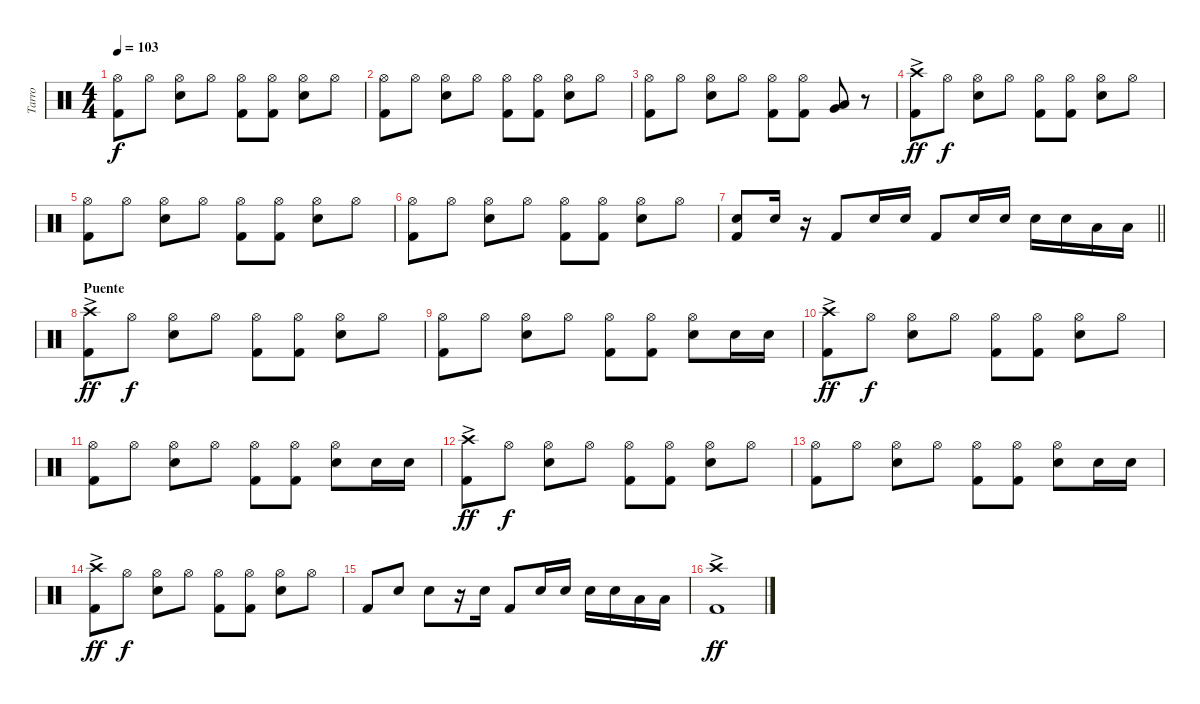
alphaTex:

\track ("Tarro" "Tarro") {instrument percussion}
\staff {score}
\articulation defaults
\ts (4 4)
\tempo 103
\clef neutral
\ks c
("Hi-Hat (open)" "Kick (hit) 2").8{dy f} "Hi-Hat (open)".8 ("Hi-Hat (open)" "Electric Snare (hit)").8 "Hi-Hat (open)".8 ("Hi-Hat (open)" "Kick (hit) 2").8 ("Hi-Hat (open)" "Kick (hit) 2").8 ("Hi-Hat (open)" "Electric Snare (hit)").8 "Hi-Hat (open)".8 |
("Hi-Hat (open)" "Kick (hit) 2").8 "Hi-Hat (open)".8 ("Hi-Hat (open)" "Electric Snare (hit)").8 "Hi-Hat (open)".8 ("Hi-Hat (open)" "Kick (hit) 2").8 ("Hi-Hat (open)" "Kick (hit) 2").8 ("Hi-Hat (open)" "Electric Snare (hit)").8 "Hi-Hat (open)".8 |
("Hi-Hat (open)" "Kick (hit) 2").8 "Hi-Hat (open)".8 ("Hi-Hat (open)" "Electric Snare (hit)").8 "Hi-Hat (open)".8 ("Hi-Hat (open)" "Kick (hit) 2").8 ("Hi-Hat (open)" "Kick (hit) 2").8 ("Very Low Tom (hit)" "Low Floor Tom (hit)").8 r.8 |
("Crash high (hit)"{ac} "Kick (hit) 2").8{dy ff} "Hi-Hat (open)".8{dy f} ("Hi-Hat (open)" "Electric Snare (hit)").8 "Hi-Hat (open)".8 ("Hi-Hat (open)" "Kick (hit) 2").8 ("Hi-Hat (open)" "Kick (hit) 2").8 ("Hi-Hat (open)" "Electric Snare (hit)").8 "Hi-Hat (open)".8 |
("Hi-Hat (open)" "Kick (hit) 2").8 "Hi-Hat (open)".8 ("Hi-Hat (open)" "Electric Snare (hit)").8 "Hi-Hat (open)".8 ("Hi-Hat (open)" "Kick (hit) 2").8 ("Hi-Hat (open)" "Kick (hit) 2").8 ("Hi-Hat (open)" "Electric Snare (hit)").8 "Hi-Hat (open)".8 |
("Hi-Hat (open)" "Kick (hit) 2").8 "Hi-Hat (open)".8 ("Hi-Hat (open)" "Electric Snare (hit)").8 "Hi-Hat (open)".8 ("Hi-Hat (open)" "Kick (hit) 2").8 ("Hi-Hat (open)" "Kick (hit) 2").8 ("Hi-Hat (open)" "Electric Snare (hit)").8 "Hi-Hat (open)".8 |
\barLineRight lightlight
("Electric Snare (hit)" "Kick (hit) 2").8 "Electric Snare (hit)".16 r.16 "Kick (hit) 2".8 "Electric Snare (hit)".16 "Electric Snare (hit)".16 "Kick (hit) 2".8 "Electric Snare (hit)".16 "Electric Snare (hit)".16 "Electric Snare (hit)".16 "Electric Snare (hit)".16 "Low Floor Tom (hit)".16 "Low Floor Tom (hit)".16 |
\section ("" "Puente")
("Crash high (hit)"{ac} "Kick (hit) 2").8{dy ff} "Hi-Hat (open)".8{dy f} ("Hi-Hat (open)" "Electric Snare (hit)").8 "Hi-Hat (open)".8 ("Hi-Hat (open)" "Kick (hit) 2").8 ("Hi-Hat (open)" "Kick (hit) 2").8 ("Hi-Hat (open)" "Electric Snare (hit)").8 "Hi-Hat (open)".8 |
("Hi-Hat (open)" "Kick (hit) 2").8 "Hi-Hat (open)".8 ("Hi-Hat (open)" "Electric Snare (hit)").8 "Hi-Hat (open)".8 ("Hi-Hat (open)" "Kick (hit) 2").8 ("Hi-Hat (open)" "Kick (hit) 2").8 ("Hi-Hat (open)" "Electric Snare (hit)").8 "Electric Snare (hit)".16 "Electric Snare (hit)".16 |
("Crash high (hit)"{ac} "Kick (hit) 2").8{dy ff} "Hi-Hat (open)".8{dy f} ("Hi-Hat (open)" "Electric Snare (hit)").8 "Hi-Hat (open)".8 ("Hi-Hat (open)" "Kick (hit) 2").8 ("Hi-Hat (open)" "Kick (hit) 2").8 ("Hi-Hat (open)" "Electric Snare (hit)").8 "Hi-Hat (open)".8 |
("Hi-Hat (open)" "Kick (hit) 2").8 "Hi-Hat (open)".8 ("Hi-Hat (open)" "Electric Snare (hit)").8 "Hi-Hat (open)".8 ("Hi-Hat (open)" "Kick (hit) 2").8 ("Hi-Hat (open)" "Kick (hit) 2").8 ("Hi-Hat (open)" "Electric Snare (hit)").8 "Electric Snare (hit)".16 "Electric Snare (hit)".16 |
("Crash high (hit)"{ac} "Kick (hit) 2").8{dy ff} "Hi-Hat (open)".8{dy f} ("Hi-Hat (open)" "Electric Snare (hit)").8 "Hi-Hat (open)".8 ("Hi-Hat (open)" "Kick (hit) 2").8 ("Hi-Hat (open)" "Kick (hit) 2").8 ("Hi-Hat (open)" "Electric Snare (hit)").8 "Hi-Hat (open)".8 |
("Hi-Hat (open)" "Kick (hit) 2").8 "Hi-Hat (open)".8 ("Hi-Hat (open)" "Electric Snare (hit)").8 "Hi-Hat (open)".8 ("Hi-Hat (open)" "Kick (hit) 2").8 ("Hi-Hat (open)" "Kick (hit) 2").8 ("Hi-Hat (open)" "Electric Snare (hit)").8 "Electric Snare (hit)".16 "Electric Snare (hit)".16 |
("Crash high (hit)"{ac} "Kick (hit) 2").8{dy ff} "Hi-Hat (open)".8{dy f} ("Hi-Hat (open)" "Electric Snare (hit)").8 "Hi-Hat (open)".8 ("Hi-Hat (open)" "Kick (hit) 2").8 ("Hi-Hat (open)" "Kick (hit) 2").8 ("Hi-Hat (open)" "Electric Snare (hit)").8 "Hi-Hat (open)".8 |
"Kick (hit) 2".8 "Electric Snare (hit)".8 "Electric Snare (hit)".8 r.16 "Electric Snare (hit)".16 "Kick (hit) 2".8 "Electric Snare (hit)".16 "Electric Snare (hit)".16 "Electric Snare (hit)".16 "Electric Snare (hit)".16 "Low Floor Tom (hit)".16 "Low Floor Tom (hit)".16 |
("Crash high (hit)"{ac} "Kick (hit) 2").1{dy ff}
